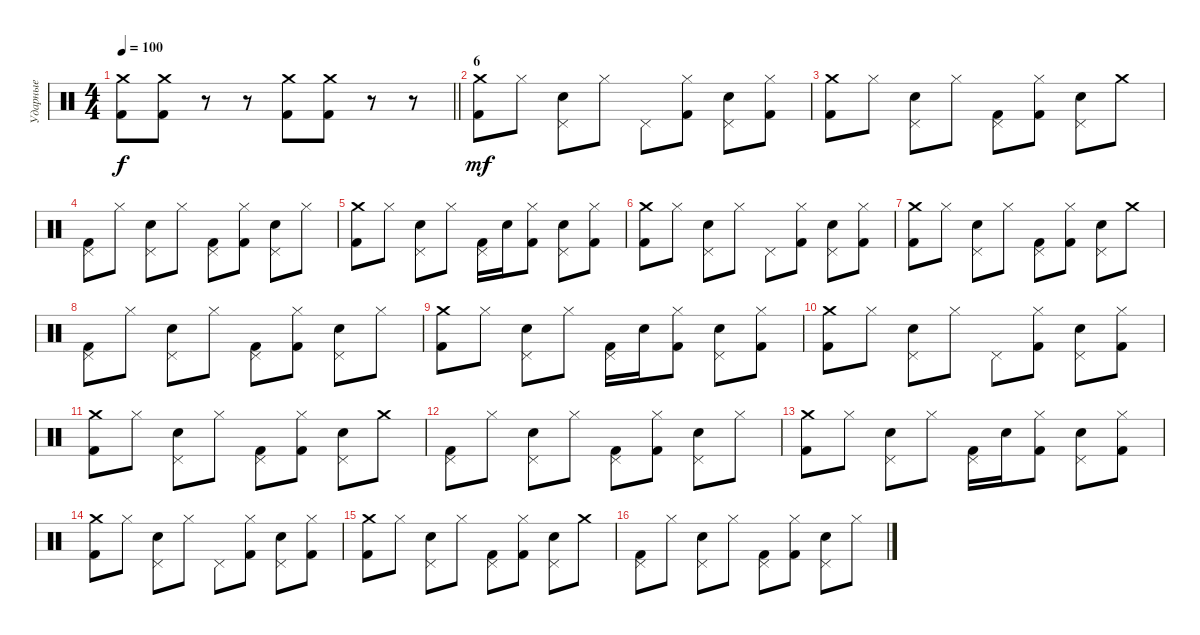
\track ("Ударные" "Ударные") {instrument percussion}
\staff {score}
\articulation defaults
\ts (4 4)
\tempo 100
\clef neutral
\barLineRight lightlight
\ks c
("Crash medium (hit)" "Kick (hit) 2").8{dy f} ("Crash medium (hit)" "Kick (hit) 2").8 r.8 r.8 ("Crash medium (hit)" "Kick (hit) 2").8 ("Crash medium (hit)" "Kick (hit) 2").8 r.8 r.8 |
\section ("" "6")
("Crash medium (hit)" "Kick (hit) 2").8{dy mf} "Hi-Hat (closed)".8 ("Pedal Hi-Hat (hit)" "Snare (hit) 2").8 "Hi-Hat (closed)".8 "Pedal Hi-Hat (hit)".8 ("Hi-Hat (closed)" "Kick (hit) 2").8 ("Pedal Hi-Hat (hit)" "Snare (hit) 2").8 ("Hi-Hat (closed)" "Kick (hit) 2").8 |
("Crash medium (hit)" "Kick (hit) 2").8 "Hi-Hat (closed)".8 ("Pedal Hi-Hat (hit)" "Snare (hit) 2").8 "Hi-Hat (closed)".8 ("Pedal Hi-Hat (hit)" "Kick (hit) 2").8 ("Hi-Hat (closed)" "Kick (hit) 2").8 ("Pedal Hi-Hat (hit)" "Snare (hit) 2").8 "Crash medium (hit)".8 |
("Pedal Hi-Hat (hit)" "Kick (hit) 2").8 "Hi-Hat (closed)".8 ("Pedal Hi-Hat (hit)" "Snare (hit) 2").8 "Hi-Hat (closed)".8 ("Pedal Hi-Hat (hit)" "Kick (hit) 2").8 ("Hi-Hat (closed)" "Kick (hit) 2").8 ("Pedal Hi-Hat (hit)" "Snare (hit) 2").8 "Hi-Hat (closed)".8 |
("Crash medium (hit)" "Kick (hit) 2").8 "Hi-Hat (closed)".8 ("Pedal Hi-Hat (hit)" "Snare (hit) 2").8 "Hi-Hat (closed)".8 ("Pedal Hi-Hat (hit)" "Kick (hit) 2").16 "Snare (hit) 2".16 ("Hi-Hat (closed)" "Kick (hit) 2").8 ("Pedal Hi-Hat (hit)" "Snare (hit) 2").8 ("Hi-Hat (closed)" "Kick (hit) 2").8 |
("Crash medium (hit)" "Kick (hit) 2").8 "Hi-Hat (closed)".8 ("Pedal Hi-Hat (hit)" "Snare (hit) 2").8 "Hi-Hat (closed)".8 "Pedal Hi-Hat (hit)".8 ("Hi-Hat (closed)" "Kick (hit) 2").8 ("Pedal Hi-Hat (hit)" "Snare (hit) 2").8 ("Hi-Hat (closed)" "Kick (hit) 2").8 |
("Crash medium (hit)" "Kick (hit) 2").8 "Hi-Hat (closed)".8 ("Pedal Hi-Hat (hit)" "Snare (hit) 2").8 "Hi-Hat (closed)".8 ("Pedal Hi-Hat (hit)" "Kick (hit) 2").8 ("Hi-Hat (closed)" "Kick (hit) 2").8 ("Pedal Hi-Hat (hit)" "Snare (hit) 2").8 "Crash medium (hit)".8 |
("Pedal Hi-Hat (hit)" "Kick (hit) 2").8 "Hi-Hat (closed)".8 ("Pedal Hi-Hat (hit)" "Snare (hit) 2").8 "Hi-Hat (closed)".8 ("Pedal Hi-Hat (hit)" "Kick (hit) 2").8 ("Hi-Hat (closed)" "Kick (hit) 2").8 ("Pedal Hi-Hat (hit)" "Snare (hit) 2").8 "Hi-Hat (closed)".8 |
("Crash medium (hit)" "Kick (hit) 2").8 "Hi-Hat (closed)".8 ("Pedal Hi-Hat (hit)" "Snare (hit) 2").8 "Hi-Hat (closed)".8 ("Pedal Hi-Hat (hit)" "Kick (hit) 2").16 "Snare (hit) 2".16 ("Hi-Hat (closed)" "Kick (hit) 2").8 ("Pedal Hi-Hat (hit)" "Snare (hit) 2").8 ("Hi-Hat (closed)" "Kick (hit) 2").8 |
("Crash medium (hit)" "Kick (hit) 2").8 "Hi-Hat (closed)".8 ("Pedal Hi-Hat (hit)" "Snare (hit) 2").8 "Hi-Hat (closed)".8 "Pedal Hi-Hat (hit)".8 ("Hi-Hat (closed)" "Kick (hit) 2").8 ("Pedal Hi-Hat (hit)" "Snare (hit) 2").8 ("Hi-Hat (closed)" "Kick (hit) 2").8 |
("Crash medium (hit)" "Kick (hit) 2").8 "Hi-Hat (closed)".8 ("Pedal Hi-Hat (hit)" "Snare (hit) 2").8 "Hi-Hat (closed)".8 ("Pedal Hi-Hat (hit)" "Kick (hit) 2").8 ("Hi-Hat (closed)" "Kick (hit) 2").8 ("Pedal Hi-Hat (hit)" "Snare (hit) 2").8 "Crash medium (hit)".8 |
("Pedal Hi-Hat (hit)" "Kick (hit) 2").8 "Hi-Hat (closed)".8 ("Pedal Hi-Hat (hit)" "Snare (hit) 2").8 "Hi-Hat (closed)".8 ("Pedal Hi-Hat (hit)" "Kick (hit) 2").8 ("Hi-Hat (closed)" "Kick (hit) 2").8 ("Pedal Hi-Hat (hit)" "Snare (hit) 2").8 "Hi-Hat (closed)".8 |
("Crash medium (hit)" "Kick (hit) 2").8 "Hi-Hat (closed)".8 ("Pedal Hi-Hat (hit)" "Snare (hit) 2").8 "Hi-Hat (closed)".8 ("Pedal Hi-Hat (hit)" "Kick (hit) 2").16 "Snare (hit) 2".16 ("Hi-Hat (closed)" "Kick (hit) 2").8 ("Pedal Hi-Hat (hit)" "Snare (hit) 2").8 ("Hi-Hat (closed)" "Kick (hit) 2").8 |
("Crash medium (hit)" "Kick (hit) 2").8 "Hi-Hat (closed)".8 ("Pedal Hi-Hat (hit)" "Snare (hit) 2").8 "Hi-Hat (closed)".8 "Pedal Hi-Hat (hit)".8 ("Hi-Hat (closed)" "Kick (hit) 2").8 ("Pedal Hi-Hat (hit)" "Snare (hit) 2").8 ("Hi-Hat (closed)" "Kick (hit) 2").8 |
("Crash medium (hit)" "Kick (hit) 2").8 "Hi-Hat (closed)".8 ("Pedal Hi-Hat (hit)" "Snare (hit) 2").8 "Hi-Hat (closed)".8 ("Pedal Hi-Hat (hit)" "Kick (hit) 2").8 ("Hi-Hat (closed)" "Kick (hit) 2").8 ("Pedal Hi-Hat (hit)" "Snare (hit) 2").8 "Crash medium (hit)".8 |
("Pedal Hi-Hat (hit)" "Kick (hit) 2").8 "Hi-Hat (closed)".8 ("Pedal Hi-Hat (hit)" "Snare (hit) 2").8 "Hi-Hat (closed)".8 ("Pedal Hi-Hat (hit)" "Kick (hit) 2").8 ("Hi-Hat (closed)" "Kick (hit) 2").8 ("Pedal Hi-Hat (hit)" "Snare (hit) 2").8 "Hi-Hat (closed)".8
